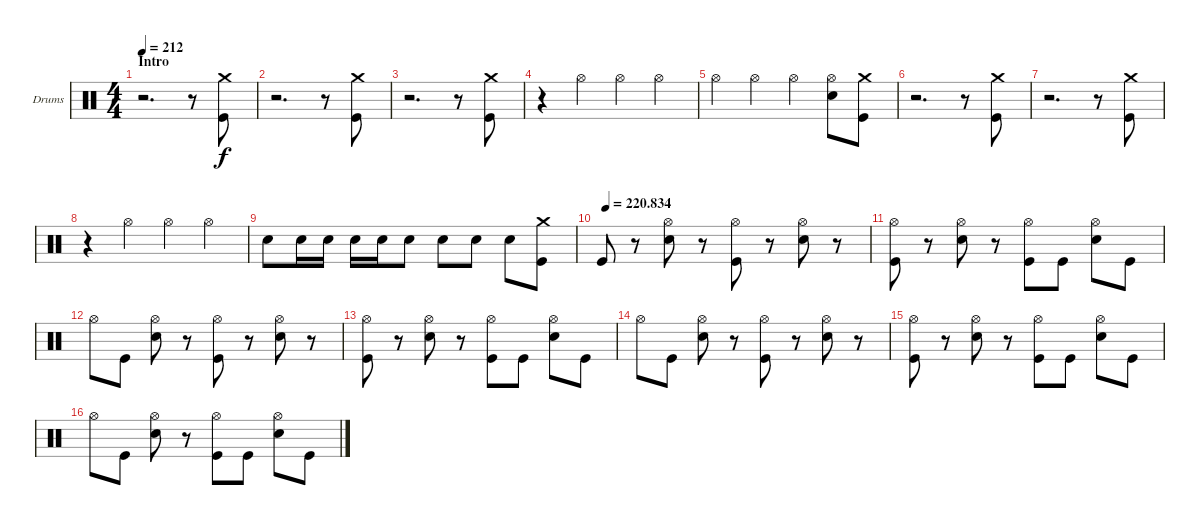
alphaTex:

\bracketExtendMode groupsimilarinstruments
\firstSystemTrackNameOrientation horizontal
\otherSystemsTrackNameOrientation horizontal
\track ("Drumkit" "Drums") {instrument percussion}
\staff {score}
\articulation defaults
\ts (4 4)
\section ("" "Intro")
\tempo 212
\clef neutral
\ks c
r.2{d dy f} r.8 ("Crash medium (hit)" "Kick (hit)").8 |
r.2{d} r.8 ("Crash medium (hit)" "Kick (hit)").8 |
r.2{d} r.8 ("Crash medium (hit)" "Kick (hit)").8 |
r.4 "Hi-Hat (open)".4 "Hi-Hat (open)".4 "Hi-Hat (open)".4 |
"Hi-Hat (open)".4 "Hi-Hat (open)".4 "Hi-Hat (open)".4 ("Hi-Hat (open)" "Snare (hit) 2").8 ("Crash medium (hit)" "Kick (hit)").8 |
r.2{d} r.8 ("Crash medium (hit)" "Kick (hit)").8 |
r.2{d} r.8 ("Crash medium (hit)" "Kick (hit)").8 |
r.4 "Hi-Hat (open)".4 "Hi-Hat (open)".4 "Hi-Hat (open)".4 |
"Snare (hit) 2".8 "Snare (hit) 2".16 "Snare (hit) 2".16 "Snare (hit) 2".16 "Snare (hit) 2".16 "Snare (hit) 2".8 "Snare (hit) 2".8 "Snare (hit) 2".8 "Snare (hit) 2".8 ("Crash medium (hit)" "Kick (hit)").8 |
\tempo (220.834 0.01875)
"Kick (hit)".8 r.8 ("Hi-Hat (open)" "Snare (hit) 2").8 r.8 ("Hi-Hat (open)" "Kick (hit)").8 r.8 ("Hi-Hat (open)" "Snare (hit) 2").8 r.8 |
("Hi-Hat (open)" "Kick (hit)").8 r.8 ("Hi-Hat (open)" "Snare (hit) 2").8 r.8 ("Hi-Hat (open)" "Kick (hit)").8 "Kick (hit)".8 ("Hi-Hat (open)" "Snare (hit) 2").8 "Kick (hit)".8 |
"Hi-Hat (open)".8 "Kick (hit)".8 ("Hi-Hat (open)" "Snare (hit) 2").8 r.8 ("Hi-Hat (open)" "Kick (hit)").8 r.8 ("Hi-Hat (open)" "Snare (hit) 2").8 r.8 |
("Hi-Hat (open)" "Kick (hit)").8 r.8 ("Hi-Hat (open)" "Snare (hit) 2").8 r.8 ("Hi-Hat (open)" "Kick (hit)").8 "Kick (hit)".8 ("Hi-Hat (open)" "Snare (hit) 2").8 "Kick (hit)".8 |
"Hi-Hat (open)".8 "Kick (hit)".8 ("Hi-Hat (open)" "Snare (hit) 2").8 r.8 ("Hi-Hat (open)" "Kick (hit)").8 r.8 ("Hi-Hat (open)" "Snare (hit) 2").8 r.8 |
("Hi-Hat (open)" "Kick (hit)").8 r.8 ("Hi-Hat (open)" "Snare (hit) 2").8 r.8 ("Hi-Hat (open)" "Kick (hit)").8 "Kick (hit)".8 ("Hi-Hat (open)" "Snare (hit) 2").8 "Kick (hit)".8 |
"Hi-Hat (open)".8 "Kick (hit)".8 ("Hi-Hat (open)" "Snare (hit) 2").8 r.8 ("Hi-Hat (open)" "Kick (hit)").8 "Kick (hit)".8 ("Hi-Hat (open)" "Snare (hit) 2").8 "Kick (hit)".8
